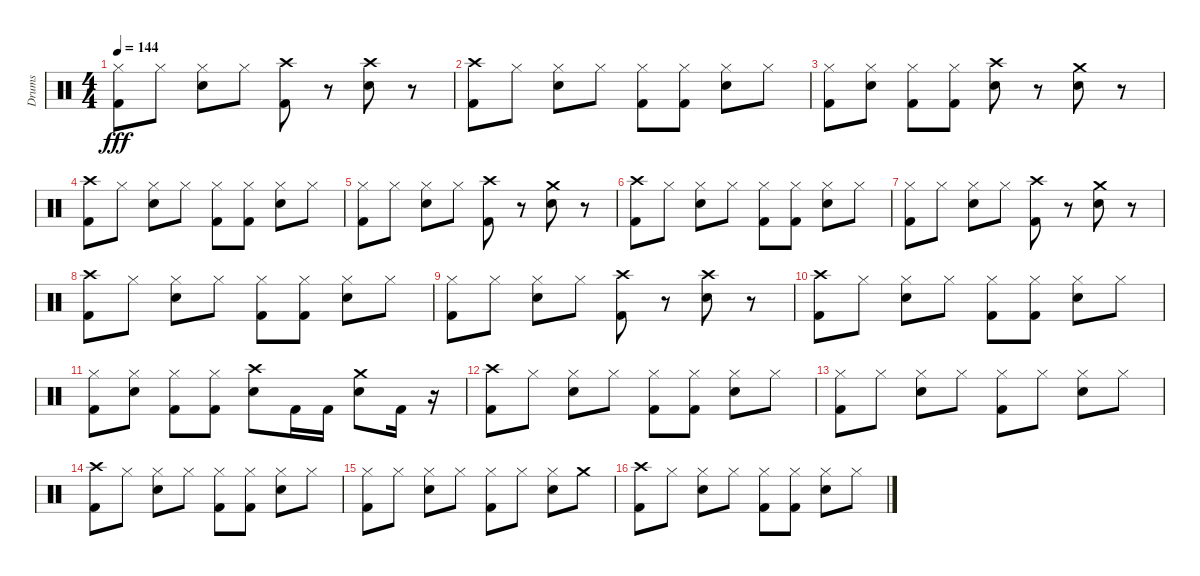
\track ("Drums" "Drums") {instrument percussion}
\staff {score}
\articulation defaults
\ts (4 4)
\tempo 144
\clef neutral
\ks c
("Hi-Hat (closed)" "Kick (hit) 2").8{dy fff} "Hi-Hat (closed)".8 ("Hi-Hat (closed)" "Snare (hit) 2").8 "Hi-Hat (closed)".8 ("Crash high (hit)" "Kick (hit) 2").8 r.8 ("Snare (hit) 2" "Crash high (hit)").8 r.8 |
("Kick (hit) 2" "Crash high (hit)").8 "Hi-Hat (closed)".8 ("Hi-Hat (closed)" "Snare (hit) 2").8 "Hi-Hat (closed)".8 ("Hi-Hat (closed)" "Kick (hit) 2").8 ("Hi-Hat (closed)" "Kick (hit) 2").8 ("Hi-Hat (closed)" "Snare (hit) 2").8 "Hi-Hat (closed)".8 |
("Hi-Hat (closed)" "Kick (hit) 2").8 ("Hi-Hat (closed)" "Snare (hit) 2").8 ("Hi-Hat (closed)" "Kick (hit) 2").8 ("Hi-Hat (closed)" "Kick (hit) 2").8 ("Crash high (hit)" "Snare (hit) 2").8 r.8 ("Snare (hit) 2" "Crash medium (hit)").8 r.8 |
("Kick (hit) 2" "Crash high (hit)").8 "Hi-Hat (closed)".8 ("Hi-Hat (closed)" "Snare (hit) 2").8 "Hi-Hat (closed)".8 ("Hi-Hat (closed)" "Kick (hit) 2").8 ("Hi-Hat (closed)" "Kick (hit) 2").8 ("Hi-Hat (closed)" "Snare (hit) 2").8 "Hi-Hat (closed)".8 |
("Hi-Hat (closed)" "Kick (hit) 2").8 "Hi-Hat (closed)".8 ("Hi-Hat (closed)" "Snare (hit) 2").8 "Hi-Hat (closed)".8 ("Crash high (hit)" "Kick (hit) 2").8 r.8 ("Snare (hit) 2" "Crash medium (hit)").8 r.8 |
("Kick (hit) 2" "Crash high (hit)").8 "Hi-Hat (closed)".8 ("Hi-Hat (closed)" "Snare (hit) 2").8 "Hi-Hat (closed)".8 ("Hi-Hat (closed)" "Kick (hit) 2").8 ("Hi-Hat (closed)" "Kick (hit) 2").8 ("Hi-Hat (closed)" "Snare (hit) 2").8 "Hi-Hat (closed)".8 |
("Hi-Hat (closed)" "Kick (hit) 2").8 "Hi-Hat (closed)".8 ("Hi-Hat (closed)" "Snare (hit) 2").8 "Hi-Hat (closed)".8 ("Crash high (hit)" "Kick (hit) 2").8 r.8 ("Snare (hit) 2" "Crash medium (hit)").8 r.8 |
("Kick (hit) 2" "Crash high (hit)").8 "Hi-Hat (closed)".8 ("Hi-Hat (closed)" "Snare (hit) 2").8 "Hi-Hat (closed)".8 ("Hi-Hat (closed)" "Kick (hit) 2").8 ("Hi-Hat (closed)" "Kick (hit) 2").8 ("Hi-Hat (closed)" "Snare (hit) 2").8 "Hi-Hat (closed)".8 |
("Hi-Hat (closed)" "Kick (hit) 2").8 "Hi-Hat (closed)".8 ("Hi-Hat (closed)" "Snare (hit) 2").8 "Hi-Hat (closed)".8 ("Crash high (hit)" "Kick (hit) 2").8 r.8 ("Snare (hit) 2" "Crash high (hit)").8 r.8 |
("Kick (hit) 2" "Crash high (hit)").8 "Hi-Hat (closed)".8 ("Hi-Hat (closed)" "Snare (hit) 2").8 "Hi-Hat (closed)".8 ("Hi-Hat (closed)" "Kick (hit) 2").8 ("Hi-Hat (closed)" "Kick (hit) 2").8 ("Hi-Hat (closed)" "Snare (hit) 2").8 "Hi-Hat (closed)".8 |
("Hi-Hat (closed)" "Kick (hit) 2").8 ("Hi-Hat (closed)" "Snare (hit) 2").8 ("Hi-Hat (closed)" "Kick (hit) 2").8 ("Hi-Hat (closed)" "Kick (hit) 2").8 ("Crash high (hit)" "Snare (hit) 2").8 "Kick (hit) 2".16 "Kick (hit) 2".16 ("Crash medium (hit)" "Snare (hit) 2").8 "Kick (hit) 2".16 r.16 |
("Kick (hit) 2" "Crash high (hit)").8 "Hi-Hat (closed)".8 ("Hi-Hat (closed)" "Snare (hit) 2").8 "Hi-Hat (closed)".8 ("Hi-Hat (closed)" "Kick (hit) 2").8 ("Hi-Hat (closed)" "Kick (hit) 2").8 ("Hi-Hat (closed)" "Snare (hit) 2").8 "Hi-Hat (closed)".8 |
("Hi-Hat (closed)" "Kick (hit) 2").8 "Hi-Hat (closed)".8 ("Hi-Hat (closed)" "Snare (hit) 2").8 "Hi-Hat (closed)".8 ("Kick (hit) 2" "Hi-Hat (closed)").8 "Hi-Hat (closed)".8 ("Snare (hit) 2" "Hi-Hat (closed)").8 "Hi-Hat (closed)".8 |
("Kick (hit) 2" "Crash high (hit)").8 "Hi-Hat (closed)".8 ("Hi-Hat (closed)" "Snare (hit) 2").8 "Hi-Hat (closed)".8 ("Hi-Hat (closed)" "Kick (hit) 2").8 ("Hi-Hat (closed)" "Kick (hit) 2").8 ("Hi-Hat (closed)" "Snare (hit) 2").8 "Hi-Hat (closed)".8 |
("Hi-Hat (closed)" "Kick (hit) 2").8 "Hi-Hat (closed)".8 ("Hi-Hat (closed)" "Snare (hit) 2").8 "Hi-Hat (closed)".8 ("Kick (hit) 2" "Hi-Hat (closed)").8 "Hi-Hat (closed)".8 ("Snare (hit) 2" "Hi-Hat (closed)").8 "Crash medium (hit)".8 |
("Kick (hit) 2" "Crash high (hit)").8 "Hi-Hat (closed)".8 ("Hi-Hat (closed)" "Snare (hit) 2").8 "Hi-Hat (closed)".8 ("Hi-Hat (closed)" "Kick (hit) 2").8 ("Hi-Hat (closed)" "Kick (hit) 2").8 ("Hi-Hat (closed)" "Snare (hit) 2").8 "Hi-Hat (closed)".8
